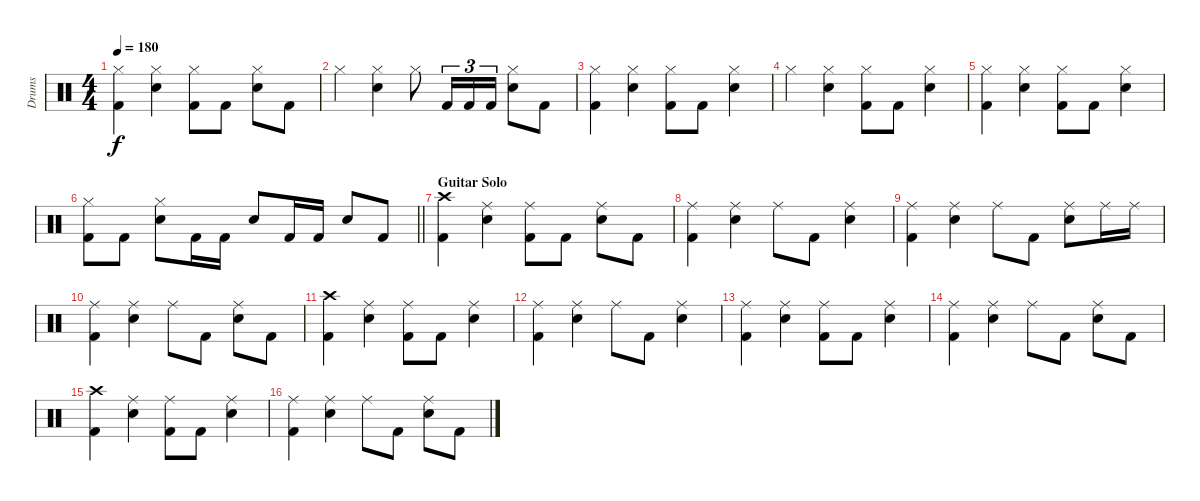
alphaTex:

\track ("Drums " "Drums ") {instrument percussion}
\staff {score}
\articulation defaults
\ts (4 4)
\tempo 180
\clef neutral
\ks c
("Kick (hit) 2" "Hi-Hat (closed)").4{dy f} ("Hi-Hat (closed)" "Electric Snare (hit)").4 ("Kick (hit) 2" "Hi-Hat (closed)").8 "Kick (hit) 2".8 ("Hi-Hat (closed)" "Electric Snare (hit)").8 "Kick (hit) 2".8 |
"Hi-Hat (closed)".4 ("Hi-Hat (closed)" "Electric Snare (hit)").4 "Hi-Hat (closed)".8 "Kick (hit) 2".16{tu (3 2)} "Kick (hit) 2".16{tu (3 2)} "Kick (hit) 2".16{tu (3 2)} ("Hi-Hat (closed)" "Electric Snare (hit)").8 "Kick (hit) 2".8 |
("Kick (hit) 2" "Hi-Hat (closed)").4 ("Hi-Hat (closed)" "Electric Snare (hit)").4 ("Kick (hit) 2" "Hi-Hat (closed)").8 "Kick (hit) 2".8 ("Hi-Hat (closed)" "Electric Snare (hit)").4 |
"Hi-Hat (closed)".4 ("Hi-Hat (closed)" "Electric Snare (hit)").4 ("Kick (hit) 2" "Hi-Hat (closed)").8 "Kick (hit) 2".8 ("Hi-Hat (closed)" "Electric Snare (hit)").4 |
("Kick (hit) 2" "Hi-Hat (closed)").4 ("Hi-Hat (closed)" "Electric Snare (hit)").4 ("Kick (hit) 2" "Hi-Hat (closed)").8 "Kick (hit) 2".8 ("Hi-Hat (closed)" "Electric Snare (hit)").4 |
\barLineRight lightlight
("Kick (hit) 2" "Hi-Hat (closed)").8 "Kick (hit) 2".8 ("Hi-Hat (closed)" "Electric Snare (hit)").8 "Kick (hit) 2".16 "Kick (hit) 2".16 "Electric Snare (hit)".8 "Kick (hit) 2".16 "Kick (hit) 2".16 "Electric Snare (hit)".8 "Kick (hit) 2".8 |
\section ("" "Guitar Solo")
("Kick (hit) 2" "Crash high (hit)").4 ("Ride (middle)" "Electric Snare (hit)").4 ("Kick (hit) 2" "Ride (middle)").8 "Kick (hit) 2".8 ("Ride (middle)" "Electric Snare (hit)").8 "Kick (hit) 2".8 |
("Kick (hit) 2" "Ride (middle)").4 ("Ride (middle)" "Electric Snare (hit)").4 "Ride (middle)".8 "Kick (hit) 2".8 ("Ride (middle)" "Electric Snare (hit)").4 |
("Kick (hit) 2" "Ride (middle)").4 ("Ride (middle)" "Electric Snare (hit)").4 "Ride (middle)".8 "Kick (hit) 2".8 ("Ride (middle)" "Electric Snare (hit)").8 "Ride (middle)".16 "Ride (middle)".16 |
("Kick (hit) 2" "Ride (middle)").4 ("Ride (middle)" "Electric Snare (hit)").4 "Ride (middle)".8 "Kick (hit) 2".8 ("Ride (middle)" "Electric Snare (hit)").8 "Kick (hit) 2".8 |
("Kick (hit) 2" "Crash high (hit)").4 ("Ride (middle)" "Electric Snare (hit)").4 ("Kick (hit) 2" "Ride (middle)").8 "Kick (hit) 2".8 ("Ride (middle)" "Electric Snare (hit)").4 |
("Kick (hit) 2" "Ride (middle)").4 ("Ride (middle)" "Electric Snare (hit)").4 "Ride (middle)".8 "Kick (hit) 2".8 ("Ride (middle)" "Electric Snare (hit)").4 |
("Kick (hit) 2" "Ride (middle)").4 ("Ride (middle)" "Electric Snare (hit)").4 ("Kick (hit) 2" "Ride (middle)").8 "Kick (hit) 2".8 ("Ride (middle)" "Electric Snare (hit)").4 |
("Kick (hit) 2" "Ride (middle)").4 ("Ride (middle)" "Electric Snare (hit)").4 "Ride (middle)".8 "Kick (hit) 2".8 ("Ride (middle)" "Electric Snare (hit)").8 "Kick (hit) 2".8 |
("Kick (hit) 2" "Crash high (hit)").4 ("Ride (middle)" "Electric Snare (hit)").4 ("Kick (hit) 2" "Ride (middle)").8 "Kick (hit) 2".8 ("Ride (middle)" "Electric Snare (hit)").4 |
("Kick (hit) 2" "Ride (middle)").4 ("Ride (middle)" "Electric Snare (hit)").4 "Ride (middle)".8 "Kick (hit) 2".8 ("Ride (middle)" "Electric Snare (hit)").8 "Kick (hit) 2".8
